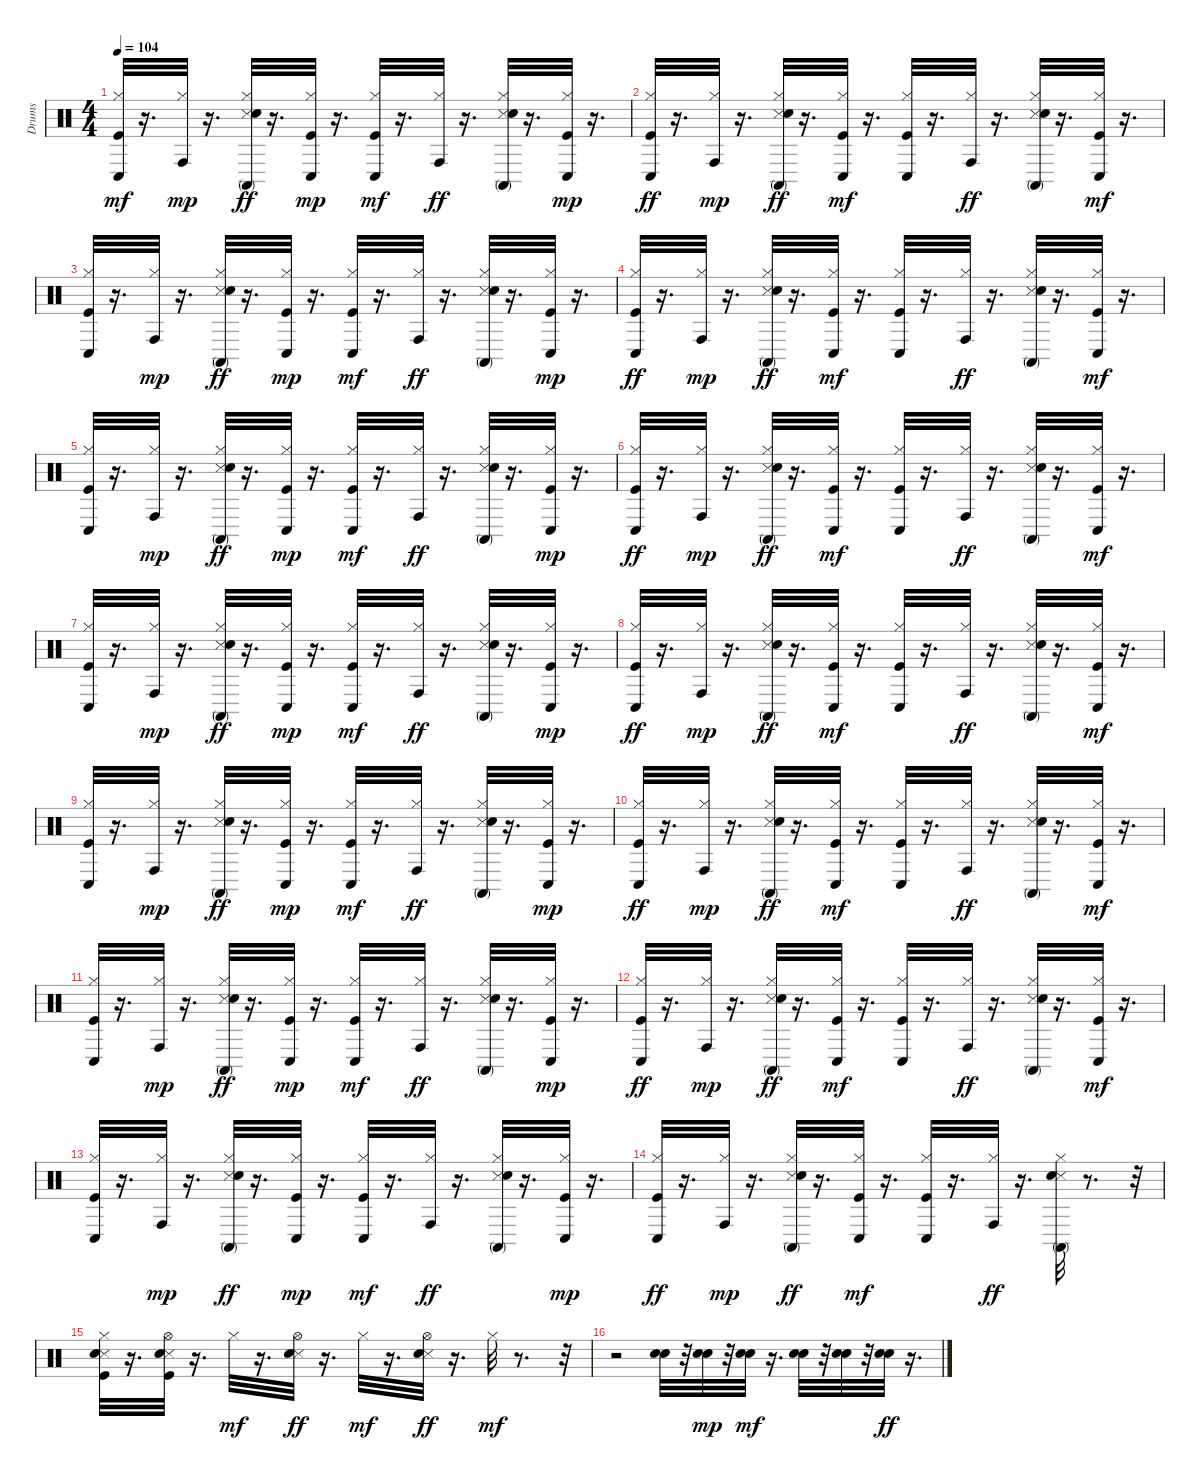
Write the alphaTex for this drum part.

\track ("Drums" "Drums") {instrument percussion}
\staff {score}
\articulation defaults
\ts (4 4)
\tempo 104
\clef neutral
\ks c
("Kick (hit)" "Hi-Hat (closed)" "Conga low (hit)").32{dy mf} r.16{d} ("Hi-Hat (closed)" "Conga high (hit)").32{dy mp} r.16{d} ("Snare (side stick) 3" "Hi-Hat (closed)" "Conga high (mute)" "Snare (hit) 2").32{dy ff} r.16{d} ("Kick (hit)" "Hi-Hat (closed)" "Conga low (hit)").32{dy mp} r.16{d} ("Kick (hit)" "Hi-Hat (closed)" "Conga low (hit)").32{dy mf} r.16{d} ("Hi-Hat (closed)" "Conga high (hit)").32{dy ff} r.16{d} ("Snare (side stick) 3" "Hi-Hat (closed)" "Conga high (mute)" "Snare (hit) 2").32 r.16{d} ("Kick (hit)" "Hi-Hat (closed)" "Conga low (hit)").32{dy mp} r.16{d} |
("Kick (hit)" "Hi-Hat (closed)" "Conga low (hit)").32{dy ff} r.16{d} ("Hi-Hat (closed)" "Conga high (hit)").32{dy mp} r.16{d} ("Snare (side stick) 3" "Hi-Hat (closed)" "Conga high (mute)" "Snare (hit) 2").32{dy ff} r.16{d} ("Kick (hit)" "Hi-Hat (closed)" "Conga low (hit)").32{dy mf} r.16{d} ("Kick (hit)" "Hi-Hat (closed)" "Conga low (hit)").32 r.16{d} ("Hi-Hat (closed)" "Conga high (hit)").32{dy ff} r.16{d} ("Snare (side stick) 3" "Hi-Hat (closed)" "Conga high (mute)" "Snare (hit) 2").32 r.16{d} ("Kick (hit)" "Hi-Hat (closed)" "Conga low (hit)").32{dy mf} r.16{d} |
("Kick (hit)" "Hi-Hat (closed)" "Conga low (hit)").32 r.16{d} ("Hi-Hat (closed)" "Conga high (hit)").32{dy mp} r.16{d} ("Snare (side stick) 3" "Hi-Hat (closed)" "Conga high (mute)" "Snare (hit) 2").32{dy ff} r.16{d} ("Kick (hit)" "Hi-Hat (closed)" "Conga low (hit)").32{dy mp} r.16{d} ("Kick (hit)" "Hi-Hat (closed)" "Conga low (hit)").32{dy mf} r.16{d} ("Hi-Hat (closed)" "Conga high (hit)").32{dy ff} r.16{d} ("Snare (side stick) 3" "Hi-Hat (closed)" "Conga high (mute)" "Snare (hit) 2").32 r.16{d} ("Kick (hit)" "Hi-Hat (closed)" "Conga low (hit)").32{dy mp} r.16{d} |
("Kick (hit)" "Hi-Hat (closed)" "Conga low (hit)").32{dy ff} r.16{d} ("Hi-Hat (closed)" "Conga high (hit)").32{dy mp} r.16{d} ("Snare (side stick) 3" "Hi-Hat (closed)" "Conga high (mute)" "Snare (hit) 2").32{dy ff} r.16{d} ("Kick (hit)" "Hi-Hat (closed)" "Conga low (hit)").32{dy mf} r.16{d} ("Kick (hit)" "Hi-Hat (closed)" "Conga low (hit)").32 r.16{d} ("Hi-Hat (closed)" "Conga high (hit)").32{dy ff} r.16{d} ("Snare (side stick) 3" "Hi-Hat (closed)" "Conga high (mute)" "Snare (hit) 2").32 r.16{d} ("Kick (hit)" "Hi-Hat (closed)" "Conga low (hit)").32{dy mf} r.16{d} |
("Kick (hit)" "Hi-Hat (closed)" "Conga low (hit)").32 r.16{d} ("Hi-Hat (closed)" "Conga high (hit)").32{dy mp} r.16{d} ("Snare (side stick) 3" "Hi-Hat (closed)" "Conga high (mute)" "Snare (hit) 2").32{dy ff} r.16{d} ("Kick (hit)" "Hi-Hat (closed)" "Conga low (hit)").32{dy mp} r.16{d} ("Kick (hit)" "Hi-Hat (closed)" "Conga low (hit)").32{dy mf} r.16{d} ("Hi-Hat (closed)" "Conga high (hit)").32{dy ff} r.16{d} ("Snare (side stick) 3" "Hi-Hat (closed)" "Conga high (mute)" "Snare (hit) 2").32 r.16{d} ("Kick (hit)" "Hi-Hat (closed)" "Conga low (hit)").32{dy mp} r.16{d} |
("Kick (hit)" "Hi-Hat (closed)" "Conga low (hit)").32{dy ff} r.16{d} ("Hi-Hat (closed)" "Conga high (hit)").32{dy mp} r.16{d} ("Snare (side stick) 3" "Hi-Hat (closed)" "Conga high (mute)" "Snare (hit) 2").32{dy ff} r.16{d} ("Kick (hit)" "Hi-Hat (closed)" "Conga low (hit)").32{dy mf} r.16{d} ("Kick (hit)" "Hi-Hat (closed)" "Conga low (hit)").32 r.16{d} ("Hi-Hat (closed)" "Conga high (hit)").32{dy ff} r.16{d} ("Snare (side stick) 3" "Hi-Hat (closed)" "Conga high (mute)" "Snare (hit) 2").32 r.16{d} ("Kick (hit)" "Hi-Hat (closed)" "Conga low (hit)").32{dy mf} r.16{d} |
("Kick (hit)" "Hi-Hat (closed)" "Conga low (hit)").32 r.16{d} ("Hi-Hat (closed)" "Conga high (hit)").32{dy mp} r.16{d} ("Snare (side stick) 3" "Hi-Hat (closed)" "Conga high (mute)" "Snare (hit) 2").32{dy ff} r.16{d} ("Kick (hit)" "Hi-Hat (closed)" "Conga low (hit)").32{dy mp} r.16{d} ("Kick (hit)" "Hi-Hat (closed)" "Conga low (hit)").32{dy mf} r.16{d} ("Hi-Hat (closed)" "Conga high (hit)").32{dy ff} r.16{d} ("Snare (side stick) 3" "Hi-Hat (closed)" "Conga high (mute)" "Snare (hit) 2").32 r.16{d} ("Kick (hit)" "Hi-Hat (closed)" "Conga low (hit)").32{dy mp} r.16{d} |
("Kick (hit)" "Hi-Hat (closed)" "Conga low (hit)").32{dy ff} r.16{d} ("Hi-Hat (closed)" "Conga high (hit)").32{dy mp} r.16{d} ("Snare (side stick) 3" "Hi-Hat (closed)" "Conga high (mute)" "Snare (hit) 2").32{dy ff} r.16{d} ("Kick (hit)" "Hi-Hat (closed)" "Conga low (hit)").32{dy mf} r.16{d} ("Kick (hit)" "Hi-Hat (closed)" "Conga low (hit)").32 r.16{d} ("Hi-Hat (closed)" "Conga high (hit)").32{dy ff} r.16{d} ("Snare (side stick) 3" "Hi-Hat (closed)" "Conga high (mute)" "Snare (hit) 2").32 r.16{d} ("Kick (hit)" "Hi-Hat (closed)" "Conga low (hit)").32{dy mf} r.16{d} |
("Kick (hit)" "Hi-Hat (closed)" "Conga low (hit)").32 r.16{d} ("Hi-Hat (closed)" "Conga high (hit)").32{dy mp} r.16{d} ("Snare (side stick) 3" "Hi-Hat (closed)" "Conga high (mute)" "Snare (hit) 2").32{dy ff} r.16{d} ("Kick (hit)" "Hi-Hat (closed)" "Conga low (hit)").32{dy mp} r.16{d} ("Kick (hit)" "Hi-Hat (closed)" "Conga low (hit)").32{dy mf} r.16{d} ("Hi-Hat (closed)" "Conga high (hit)").32{dy ff} r.16{d} ("Snare (side stick) 3" "Hi-Hat (closed)" "Conga high (mute)" "Snare (hit) 2").32 r.16{d} ("Kick (hit)" "Hi-Hat (closed)" "Conga low (hit)").32{dy mp} r.16{d} |
("Kick (hit)" "Hi-Hat (closed)" "Conga low (hit)").32{dy ff} r.16{d} ("Hi-Hat (closed)" "Conga high (hit)").32{dy mp} r.16{d} ("Snare (side stick) 3" "Hi-Hat (closed)" "Conga high (mute)" "Snare (hit) 2").32{dy ff} r.16{d} ("Kick (hit)" "Hi-Hat (closed)" "Conga low (hit)").32{dy mf} r.16{d} ("Kick (hit)" "Hi-Hat (closed)" "Conga low (hit)").32 r.16{d} ("Hi-Hat (closed)" "Conga high (hit)").32{dy ff} r.16{d} ("Snare (side stick) 3" "Hi-Hat (closed)" "Conga high (mute)" "Snare (hit) 2").32 r.16{d} ("Kick (hit)" "Hi-Hat (closed)" "Conga low (hit)").32{dy mf} r.16{d} |
("Kick (hit)" "Hi-Hat (closed)" "Conga low (hit)").32 r.16{d} ("Hi-Hat (closed)" "Conga high (hit)").32{dy mp} r.16{d} ("Snare (side stick) 3" "Hi-Hat (closed)" "Conga high (mute)" "Snare (hit) 2").32{dy ff} r.16{d} ("Kick (hit)" "Hi-Hat (closed)" "Conga low (hit)").32{dy mp} r.16{d} ("Kick (hit)" "Hi-Hat (closed)" "Conga low (hit)").32{dy mf} r.16{d} ("Hi-Hat (closed)" "Conga high (hit)").32{dy ff} r.16{d} ("Snare (side stick) 3" "Hi-Hat (closed)" "Conga high (mute)" "Snare (hit) 2").32 r.16{d} ("Kick (hit)" "Hi-Hat (closed)" "Conga low (hit)").32{dy mp} r.16{d} |
("Kick (hit)" "Hi-Hat (closed)" "Conga low (hit)").32{dy ff} r.16{d} ("Hi-Hat (closed)" "Conga high (hit)").32{dy mp} r.16{d} ("Snare (side stick) 3" "Hi-Hat (closed)" "Conga high (mute)" "Snare (hit) 2").32{dy ff} r.16{d} ("Kick (hit)" "Hi-Hat (closed)" "Conga low (hit)").32{dy mf} r.16{d} ("Kick (hit)" "Hi-Hat (closed)" "Conga low (hit)").32 r.16{d} ("Hi-Hat (closed)" "Conga high (hit)").32{dy ff} r.16{d} ("Snare (side stick) 3" "Hi-Hat (closed)" "Conga high (mute)" "Snare (hit) 2").32 r.16{d} ("Kick (hit)" "Hi-Hat (closed)" "Conga low (hit)").32{dy mf} r.16{d} |
("Kick (hit)" "Hi-Hat (closed)" "Conga low (hit)").32 r.16{d} ("Hi-Hat (closed)" "Conga high (hit)").32{dy mp} r.16{d} ("Snare (side stick) 3" "Hi-Hat (closed)" "Conga high (mute)" "Snare (hit) 2").32{dy ff} r.16{d} ("Kick (hit)" "Hi-Hat (closed)" "Conga low (hit)").32{dy mp} r.16{d} ("Kick (hit)" "Hi-Hat (closed)" "Conga low (hit)").32{dy mf} r.16{d} ("Hi-Hat (closed)" "Conga high (hit)").32{dy ff} r.16{d} ("Snare (side stick) 3" "Hi-Hat (closed)" "Conga high (mute)" "Snare (hit) 2").32 r.16{d} ("Kick (hit)" "Hi-Hat (closed)" "Conga low (hit)").32{dy mp} r.16{d} |
("Kick (hit)" "Hi-Hat (closed)" "Conga low (hit)").32{dy ff} r.16{d} ("Hi-Hat (closed)" "Conga high (hit)").32{dy mp} r.16{d} ("Snare (side stick) 3" "Hi-Hat (closed)" "Conga high (mute)" "Snare (hit) 2").32{dy ff} r.16{d} ("Kick (hit)" "Hi-Hat (closed)" "Conga low (hit)").32{dy mf} r.16{d} ("Kick (hit)" "Hi-Hat (closed)" "Conga low (hit)").32 r.16{d} ("Hi-Hat (closed)" "Conga high (hit)").32{dy ff} r.16{d} ("Snare (side stick) 3" "Hi-Hat (closed)" "Conga high (mute)" "Snare (hit) 2").32 r.8{d} r.32 |
("Snare (side stick) 3" "Kick (hit)" "Hi-Hat (closed)" "Snare (hit) 2").32 r.16{d} ("Hi-Hat (open)" "Snare (side stick) 3" "Kick (hit)" "Snare (hit) 2").32 r.16{d} "Hi-Hat (closed)".32{dy mf} r.16{d} ("Hi-Hat (open)" "Snare (side stick) 3" "Snare (hit) 2").32{dy ff} r.16{d} "Hi-Hat (closed)".32{dy mf} r.16{d} ("Hi-Hat (open)" "Snare (side stick) 3" "Snare (hit) 2").32{dy ff} r.16{d} "Hi-Hat (closed)".32{dy mf} r.8{d} r.32 |
r.2 ("Snare (hit) 2" "Hand Clap (hit)").32 r.32 ("Snare (hit) 2" "Hand Clap (hit)").32{dy mp} r.32 ("Snare (hit) 2" "Hand Clap (hit)").32{dy mf} r.16{d} ("Snare (hit) 2" "Hand Clap (hit)").32 r.32 ("Snare (hit) 2" "Hand Clap (hit)").32 r.32 ("Snare (hit) 2" "Hand Clap (hit)").32{dy ff} r.16{d}
